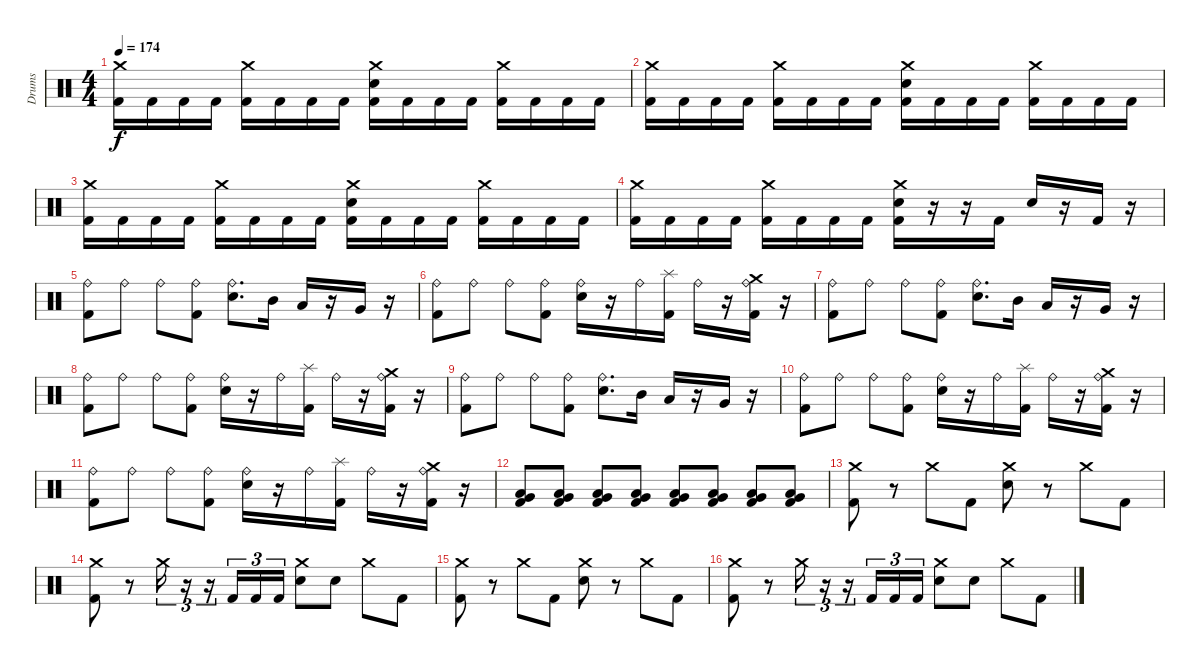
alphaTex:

\track ("Drums" "Drums") {instrument percussion}
\staff {score}
\articulation defaults
\ts (4 4)
\tempo 174
\clef neutral
\ks c
("Crash medium (hit)" "Kick (hit) 2").16{dy f} "Kick (hit) 2".16 "Kick (hit) 2".16 "Kick (hit) 2".16 ("Crash medium (hit)" "Kick (hit) 2").16 "Kick (hit) 2".16 "Kick (hit) 2".16 "Kick (hit) 2".16 ("Crash medium (hit)" "Electric Snare (hit)" "Kick (hit) 2").16 "Kick (hit) 2".16 "Kick (hit) 2".16 "Kick (hit) 2".16 ("Crash medium (hit)" "Kick (hit) 2").16 "Kick (hit) 2".16 "Kick (hit) 2".16 "Kick (hit) 2".16 |
("Crash medium (hit)" "Kick (hit) 2").16 "Kick (hit) 2".16 "Kick (hit) 2".16 "Kick (hit) 2".16 ("Crash medium (hit)" "Kick (hit) 2").16 "Kick (hit) 2".16 "Kick (hit) 2".16 "Kick (hit) 2".16 ("Crash medium (hit)" "Electric Snare (hit)" "Kick (hit) 2").16 "Kick (hit) 2".16 "Kick (hit) 2".16 "Kick (hit) 2".16 ("Crash medium (hit)" "Kick (hit) 2").16 "Kick (hit) 2".16 "Kick (hit) 2".16 "Kick (hit) 2".16 |
("Crash medium (hit)" "Kick (hit) 2").16 "Kick (hit) 2".16 "Kick (hit) 2".16 "Kick (hit) 2".16 ("Crash medium (hit)" "Kick (hit) 2").16 "Kick (hit) 2".16 "Kick (hit) 2".16 "Kick (hit) 2".16 ("Crash medium (hit)" "Electric Snare (hit)" "Kick (hit) 2").16 "Kick (hit) 2".16 "Kick (hit) 2".16 "Kick (hit) 2".16 ("Crash medium (hit)" "Kick (hit) 2").16 "Kick (hit) 2".16 "Kick (hit) 2".16 "Kick (hit) 2".16 |
("Crash medium (hit)" "Kick (hit) 2").16 "Kick (hit) 2".16 "Kick (hit) 2".16 "Kick (hit) 2".16 ("Crash medium (hit)" "Kick (hit) 2").16 "Kick (hit) 2".16 "Kick (hit) 2".16 "Kick (hit) 2".16 ("Crash medium (hit)" "Electric Snare (hit)" "Kick (hit) 2").16 r.16 r.16 "Kick (hit) 2".16 "Electric Snare (hit)".16 r.16 "Kick (hit) 2".16 r.16 |
("Ride (bell)" "Kick (hit) 2").8 "Ride (bell)".8 "Ride (bell)".8 ("Ride (bell)" "Kick (hit) 2").8 ("Ride (bell)" "Electric Snare (hit)").8{d} "Mid Tom (hit)".16 "Low Tom (hit)".16 r.16 "Very Low Tom (hit)".16 r.16 |
("Ride (bell)" "Kick (hit) 2").8 "Ride (bell)".8 "Ride (bell)".8 ("Ride (bell)" "Kick (hit) 2").8 ("Ride (bell)" "Electric Snare (hit)").16 r.16 "Ride (bell)".16 ("Splash (hit)" "Kick (hit) 2").16 "Ride (bell)".16 r.16 ("Crash medium (hit)" "Ride (bell)" "Kick (hit) 2").16 r.16 |
("Ride (bell)" "Kick (hit) 2").8 "Ride (bell)".8 "Ride (bell)".8 ("Ride (bell)" "Kick (hit) 2").8 ("Ride (bell)" "Electric Snare (hit)").8{d} "Mid Tom (hit)".16 "Low Tom (hit)".16 r.16 "Very Low Tom (hit)".16 r.16 |
("Ride (bell)" "Kick (hit) 2").8 "Ride (bell)".8 "Ride (bell)".8 ("Ride (bell)" "Kick (hit) 2").8 ("Ride (bell)" "Electric Snare (hit)").16 r.16 "Ride (bell)".16 ("Splash (hit)" "Kick (hit) 2").16 "Ride (bell)".16 r.16 ("Crash medium (hit)" "Ride (bell)" "Kick (hit) 2").16 r.16 |
("Ride (bell)" "Kick (hit) 2").8 "Ride (bell)".8 "Ride (bell)".8 ("Ride (bell)" "Kick (hit) 2").8 ("Ride (bell)" "Electric Snare (hit)").8{d} "Mid Tom (hit)".16 "Low Tom (hit)".16 r.16 "Very Low Tom (hit)".16 r.16 |
("Ride (bell)" "Kick (hit) 2").8 "Ride (bell)".8 "Ride (bell)".8 ("Ride (bell)" "Kick (hit) 2").8 ("Ride (bell)" "Electric Snare (hit)").16 r.16 "Ride (bell)".16 ("Splash (hit)" "Kick (hit) 2").16 "Ride (bell)".16 r.16 ("Crash medium (hit)" "Ride (bell)" "Kick (hit) 2").16 r.16 |
("Ride (bell)" "Kick (hit) 2").8 "Ride (bell)".8 "Ride (bell)".8 ("Ride (bell)" "Kick (hit) 2").8 ("Ride (bell)" "Electric Snare (hit)").16 r.16 "Ride (bell)".16 ("Splash (hit)" "Kick (hit) 2").16 "Ride (bell)".16 r.16 ("Crash medium (hit)" "Ride (bell)" "Kick (hit) 2").16 r.16 |
("Low Floor Tom (hit)" "Very Low Tom (hit)" "Kick (hit) 2").8 ("Low Floor Tom (hit)" "Very Low Tom (hit)" "Kick (hit) 2").8 ("Low Floor Tom (hit)" "Very Low Tom (hit)" "Kick (hit) 2").8 ("Low Floor Tom (hit)" "Very Low Tom (hit)" "Kick (hit) 2").8 ("Low Floor Tom (hit)" "Very Low Tom (hit)" "Kick (hit) 2").8 ("Low Floor Tom (hit)" "Very Low Tom (hit)" "Kick (hit) 2").8 ("Low Floor Tom (hit)" "Very Low Tom (hit)" "Kick (hit) 2").8 ("Low Floor Tom (hit)" "Very Low Tom (hit)" "Kick (hit) 2").8 |
("Crash medium (hit)" "Kick (hit) 2").8 r.8 "Crash medium (hit)".8 "Kick (hit) 2".8 ("Crash medium (hit)" "Electric Snare (hit)").8 r.8 "Crash medium (hit)".8 "Kick (hit) 2".8 |
("Crash medium (hit)" "Kick (hit) 2").8 r.8 "Crash medium (hit)".16{tu (3 2)} r.16{tu (3 2)} r.16{tu (3 2)} "Kick (hit) 2".16{tu (3 2)} "Kick (hit) 2".16{tu (3 2)} "Kick (hit) 2".16{tu (3 2)} ("Crash medium (hit)" "Electric Snare (hit)").8 "Electric Snare (hit)".8 "Crash medium (hit)".8 "Kick (hit) 2".8 |
("Crash medium (hit)" "Kick (hit) 2").8 r.8 "Crash medium (hit)".8 "Kick (hit) 2".8 ("Crash medium (hit)" "Electric Snare (hit)").8 r.8 "Crash medium (hit)".8 "Kick (hit) 2".8 |
("Crash medium (hit)" "Kick (hit) 2").8 r.8 "Crash medium (hit)".16{tu (3 2)} r.16{tu (3 2)} r.16{tu (3 2)} "Kick (hit) 2".16{tu (3 2)} "Kick (hit) 2".16{tu (3 2)} "Kick (hit) 2".16{tu (3 2)} ("Crash medium (hit)" "Electric Snare (hit)").8 "Electric Snare (hit)".8 "Crash medium (hit)".8 "Kick (hit) 2".8
